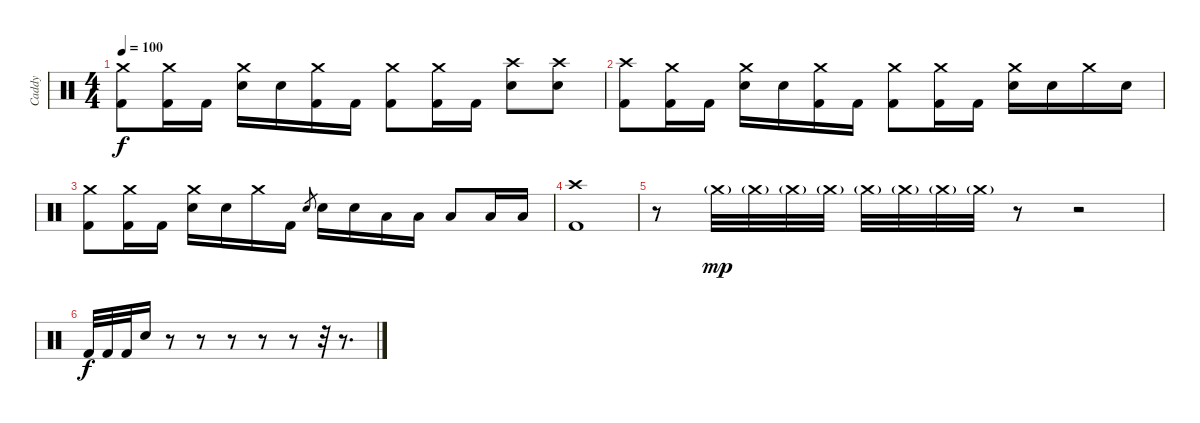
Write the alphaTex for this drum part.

\track ("Caddy" "Caddy") {instrument percussion}
\staff {score}
\articulation defaults
\ts (4 4)
\tempo 100
\clef neutral
\ks c
("Crash medium (hit)" "Kick (hit) 2").8{dy f} ("Crash medium (hit)" "Kick (hit) 2").16 "Kick (hit) 2".16 ("Crash medium (hit)" "Electric Snare (hit)").16 "Electric Snare (hit)".16 ("Crash medium (hit)" "Kick (hit) 2").16 "Kick (hit) 2".16 ("Crash medium (hit)" "Kick (hit) 2").8 ("Crash medium (hit)" "Kick (hit) 2").16 "Kick (hit) 2".16 ("Crash high (hit)" "Electric Snare (hit)").8 ("Crash high (hit)" "Electric Snare (hit)").8 |
("Crash high (hit)" "Kick (hit) 2").8 ("Crash medium (hit)" "Kick (hit) 2").16 "Kick (hit) 2".16 ("Crash medium (hit)" "Electric Snare (hit)").16 "Electric Snare (hit)".16 ("Crash medium (hit)" "Kick (hit) 2").16 "Kick (hit) 2".16 ("Crash medium (hit)" "Kick (hit) 2").8 ("Crash medium (hit)" "Kick (hit) 2").16 "Kick (hit) 2".16 ("Crash medium (hit)" "Electric Snare (hit)").16 "Electric Snare (hit)".16 "Crash medium (hit)".16 "Electric Snare (hit)".16 |
("Crash medium (hit)" "Kick (hit) 2").8 ("Crash medium (hit)" "Kick (hit) 2").16 "Kick (hit) 2".16 ("Crash medium (hit)" "Electric Snare (hit)").16 "Electric Snare (hit)".16 "Crash medium (hit)".16 "Kick (hit) 2".16 "Electric Snare (hit)".8{gr} "Electric Snare (hit)".16 "Electric Snare (hit)".16 "Low Tom (hit)".16 "Low Tom (hit)".16 "Low Tom (hit)".8 "Low Floor Tom (hit)".16 "Low Floor Tom (hit)".16 |
("Crash high (hit)" "Kick (hit) 2").1 |
r.8 "Crash medium (hit)"{g}.32{dy mp} "Crash medium (hit)"{g}.32 "Crash medium (hit)"{g}.32 "Crash medium (hit)"{g}.32 "Crash medium (hit)"{g}.32 "Crash medium (hit)"{g}.32 "Crash medium (hit)"{g}.32 "Crash medium (hit)"{g}.32 r.8 r.2 |
"Kick (hit) 2".32{dy f} "Kick (hit) 2".32 "Kick (hit) 2".32 "Electric Snare (hit)".16 r.8 r.8 r.8 r.8 r.8 r.32 r.8{d}
